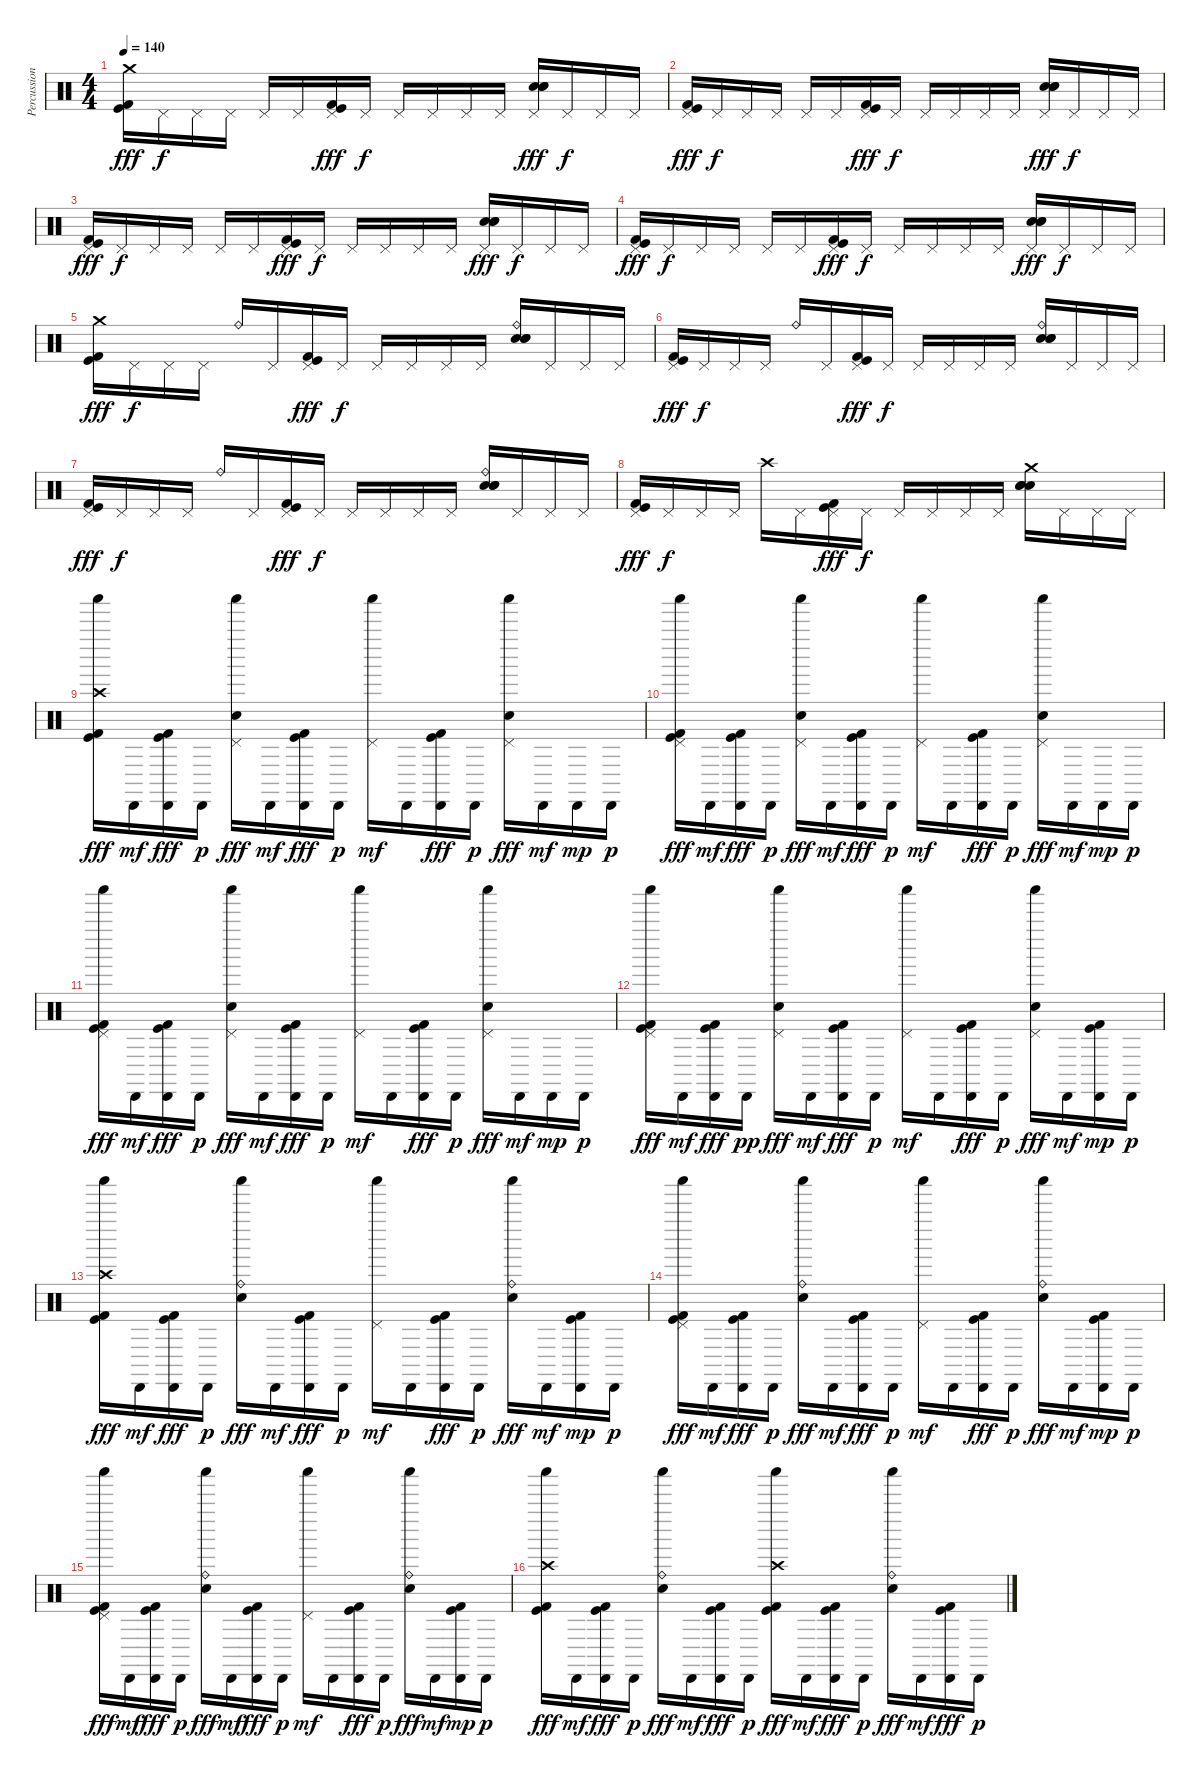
\track ("Percussion" "Percussion") {instrument percussion}
\staff {score}
\articulation defaults
\ts (4 4)
\tempo 140
\clef neutral
\ks c
("Crash medium (hit)" "Kick (hit)" "Kick (hit) 2").16{dy fff} "Pedal Hi-Hat (hit)".16{dy f} "Pedal Hi-Hat (hit)".16 "Pedal Hi-Hat (hit)".16 "Pedal Hi-Hat (hit)".16 "Pedal Hi-Hat (hit)".16 ("Pedal Hi-Hat (hit)" "Kick (hit)" "Kick (hit) 2").16{dy fff} "Pedal Hi-Hat (hit)".16{dy f} "Pedal Hi-Hat (hit)".16 "Pedal Hi-Hat (hit)".16 "Pedal Hi-Hat (hit)".16 "Pedal Hi-Hat (hit)".16 ("Pedal Hi-Hat (hit)" "Electric Snare (hit)" "Electric Snare (hit)" "Electric Snare (hit)").16{bu 60 dy fff} "Pedal Hi-Hat (hit)".16{dy f} "Pedal Hi-Hat (hit)".16 "Pedal Hi-Hat (hit)".16 |
("Pedal Hi-Hat (hit)" "Kick (hit)" "Kick (hit) 2").16{dy fff} "Pedal Hi-Hat (hit)".16{dy f} "Pedal Hi-Hat (hit)".16 "Pedal Hi-Hat (hit)".16 "Pedal Hi-Hat (hit)".16 "Pedal Hi-Hat (hit)".16 ("Pedal Hi-Hat (hit)" "Kick (hit)" "Kick (hit) 2").16{dy fff} "Pedal Hi-Hat (hit)".16{dy f} "Pedal Hi-Hat (hit)".16 "Pedal Hi-Hat (hit)".16 "Pedal Hi-Hat (hit)".16 "Pedal Hi-Hat (hit)".16 ("Pedal Hi-Hat (hit)" "Electric Snare (hit)" "Electric Snare (hit)" "Electric Snare (hit)").16{bu 60 dy fff} "Pedal Hi-Hat (hit)".16{dy f} "Pedal Hi-Hat (hit)".16 "Pedal Hi-Hat (hit)".16 |
("Pedal Hi-Hat (hit)" "Kick (hit)" "Kick (hit) 2").16{dy fff} "Pedal Hi-Hat (hit)".16{dy f} "Pedal Hi-Hat (hit)".16 "Pedal Hi-Hat (hit)".16 "Pedal Hi-Hat (hit)".16 "Pedal Hi-Hat (hit)".16 ("Pedal Hi-Hat (hit)" "Kick (hit)" "Kick (hit) 2").16{dy fff} "Pedal Hi-Hat (hit)".16{dy f} "Pedal Hi-Hat (hit)".16 "Pedal Hi-Hat (hit)".16 "Pedal Hi-Hat (hit)".16 "Pedal Hi-Hat (hit)".16 ("Pedal Hi-Hat (hit)" "Electric Snare (hit)" "Electric Snare (hit)" "Electric Snare (hit)").16{bu 60 dy fff} "Pedal Hi-Hat (hit)".16{dy f} "Pedal Hi-Hat (hit)".16 "Pedal Hi-Hat (hit)".16 |
("Pedal Hi-Hat (hit)" "Kick (hit)" "Kick (hit) 2").16{dy fff} "Pedal Hi-Hat (hit)".16{dy f} "Pedal Hi-Hat (hit)".16 "Pedal Hi-Hat (hit)".16 "Pedal Hi-Hat (hit)".16 "Pedal Hi-Hat (hit)".16 ("Pedal Hi-Hat (hit)" "Kick (hit)" "Kick (hit) 2").16{dy fff} "Pedal Hi-Hat (hit)".16{dy f} "Pedal Hi-Hat (hit)".16 "Pedal Hi-Hat (hit)".16 "Pedal Hi-Hat (hit)".16 "Pedal Hi-Hat (hit)".16 ("Pedal Hi-Hat (hit)" "Electric Snare (hit)" "Electric Snare (hit)" "Electric Snare (hit)").16{bu 60 dy fff} "Pedal Hi-Hat (hit)".16{dy f} "Pedal Hi-Hat (hit)".16 "Pedal Hi-Hat (hit)".16 |
("Crash medium (hit)" "Kick (hit)" "Kick (hit) 2").16{dy fff} "Pedal Hi-Hat (hit)".16{dy f} "Pedal Hi-Hat (hit)".16 "Pedal Hi-Hat (hit)".16 "Ride (bell)".16 "Pedal Hi-Hat (hit)".16 ("Pedal Hi-Hat (hit)" "Kick (hit)" "Kick (hit) 2").16{dy fff} "Pedal Hi-Hat (hit)".16{dy f} "Pedal Hi-Hat (hit)".16 "Pedal Hi-Hat (hit)".16 "Pedal Hi-Hat (hit)".16 "Pedal Hi-Hat (hit)".16 ("Ride (bell)" "Electric Snare (hit)" "Electric Snare (hit)" "Electric Snare (hit)").16{bu 60} "Pedal Hi-Hat (hit)".16 "Pedal Hi-Hat (hit)".16 "Pedal Hi-Hat (hit)".16 |
("Pedal Hi-Hat (hit)" "Kick (hit)" "Kick (hit) 2").16{dy fff} "Pedal Hi-Hat (hit)".16{dy f} "Pedal Hi-Hat (hit)".16 "Pedal Hi-Hat (hit)".16 "Ride (bell)".16 "Pedal Hi-Hat (hit)".16 ("Pedal Hi-Hat (hit)" "Kick (hit)" "Kick (hit) 2").16{dy fff} "Pedal Hi-Hat (hit)".16{dy f} "Pedal Hi-Hat (hit)".16 "Pedal Hi-Hat (hit)".16 "Pedal Hi-Hat (hit)".16 "Pedal Hi-Hat (hit)".16 ("Ride (bell)" "Electric Snare (hit)" "Electric Snare (hit)" "Electric Snare (hit)").16{bu 60} "Pedal Hi-Hat (hit)".16 "Pedal Hi-Hat (hit)".16 "Pedal Hi-Hat (hit)".16 |
("Pedal Hi-Hat (hit)" "Kick (hit)" "Kick (hit) 2").16{dy fff} "Pedal Hi-Hat (hit)".16{dy f} "Pedal Hi-Hat (hit)".16 "Pedal Hi-Hat (hit)".16 "Ride (bell)".16 "Pedal Hi-Hat (hit)".16 ("Pedal Hi-Hat (hit)" "Kick (hit)" "Kick (hit) 2").16{dy fff} "Pedal Hi-Hat (hit)".16{dy f} "Pedal Hi-Hat (hit)".16 "Pedal Hi-Hat (hit)".16 "Pedal Hi-Hat (hit)".16 "Pedal Hi-Hat (hit)".16 ("Ride (bell)" "Electric Snare (hit)" "Electric Snare (hit)" "Electric Snare (hit)").16{bu 60} "Pedal Hi-Hat (hit)".16 "Pedal Hi-Hat (hit)".16 "Pedal Hi-Hat (hit)".16 |
("Pedal Hi-Hat (hit)" "Kick (hit)" "Kick (hit) 2").16{dy fff} "Pedal Hi-Hat (hit)".16{dy f} "Pedal Hi-Hat (hit)".16 "Pedal Hi-Hat (hit)".16 "Crash high (hit)".16 "Pedal Hi-Hat (hit)".16 ("Pedal Hi-Hat (hit)" "Kick (hit)" "Kick (hit) 2").16{dy fff} "Pedal Hi-Hat (hit)".16{dy f} "Pedal Hi-Hat (hit)".16 "Pedal Hi-Hat (hit)".16 "Pedal Hi-Hat (hit)".16 "Pedal Hi-Hat (hit)".16 ("Crash medium (hit)" "Electric Snare (hit)" "Electric Snare (hit)" "Electric Snare (hit)").16{bu 60} "Pedal Hi-Hat (hit)".16 "Pedal Hi-Hat (hit)".16 "Pedal Hi-Hat (hit)".16 |
("Crash high (hit)" "Shaker (hit)" "Kick (hit)" "Kick (hit) 2").16{dy fff} "Cabasa (hit)".16{dy mf} ("Cabasa (hit)" "Kick (hit)" "Kick (hit) 2").16{dy fff} "Cabasa (hit)".16{dy p} ("Pedal Hi-Hat (hit)" "Shaker (hit)" "Electric Snare (hit)").16{dy fff} "Cabasa (hit)".16{dy mf} ("Cabasa (hit)" "Kick (hit)" "Kick (hit) 2").16{dy fff} "Cabasa (hit)".16{dy p} ("Pedal Hi-Hat (hit)" "Shaker (hit)").16{dy mf} "Cabasa (hit)".16 ("Cabasa (hit)" "Kick (hit)" "Kick (hit) 2").16{dy fff} "Cabasa (hit)".16{dy p} ("Pedal Hi-Hat (hit)" "Shaker (hit)" "Electric Snare (hit)").16{dy fff} "Cabasa (hit)".16{dy mf} "Cabasa (hit)".16{dy mp} "Cabasa (hit)".16{dy p} |
("Pedal Hi-Hat (hit)" "Shaker (hit)" "Kick (hit)" "Kick (hit) 2").16{dy fff} "Cabasa (hit)".16{dy mf} ("Cabasa (hit)" "Kick (hit)" "Kick (hit) 2").16{dy fff} "Cabasa (hit)".16{dy p} ("Pedal Hi-Hat (hit)" "Shaker (hit)" "Electric Snare (hit)").16{dy fff} "Cabasa (hit)".16{dy mf} ("Cabasa (hit)" "Kick (hit)" "Kick (hit) 2").16{dy fff} "Cabasa (hit)".16{dy p} ("Pedal Hi-Hat (hit)" "Shaker (hit)").16{dy mf} "Cabasa (hit)".16 ("Cabasa (hit)" "Kick (hit)" "Kick (hit) 2").16{dy fff} "Cabasa (hit)".16{dy p} ("Pedal Hi-Hat (hit)" "Shaker (hit)" "Electric Snare (hit)").16{dy fff} "Cabasa (hit)".16{dy mf} "Cabasa (hit)".16{dy mp} "Cabasa (hit)".16{dy p} |
("Pedal Hi-Hat (hit)" "Shaker (hit)" "Kick (hit)" "Kick (hit) 2").16{dy fff} "Cabasa (hit)".16{dy mf} ("Cabasa (hit)" "Kick (hit)" "Kick (hit) 2").16{dy fff} "Cabasa (hit)".16{dy p} ("Pedal Hi-Hat (hit)" "Shaker (hit)" "Electric Snare (hit)").16{dy fff} "Cabasa (hit)".16{dy mf} ("Cabasa (hit)" "Kick (hit)" "Kick (hit) 2").16{dy fff} "Cabasa (hit)".16{dy p} ("Pedal Hi-Hat (hit)" "Shaker (hit)").16{dy mf} "Cabasa (hit)".16 ("Cabasa (hit)" "Kick (hit)" "Kick (hit) 2").16{dy fff} "Cabasa (hit)".16{dy p} ("Pedal Hi-Hat (hit)" "Shaker (hit)" "Electric Snare (hit)").16{dy fff} "Cabasa (hit)".16{dy mf} "Cabasa (hit)".16{dy mp} "Cabasa (hit)".16{dy p} |
("Pedal Hi-Hat (hit)" "Shaker (hit)" "Kick (hit)" "Kick (hit) 2").16{dy fff} "Cabasa (hit)".16{dy mf} ("Cabasa (hit)" "Kick (hit)" "Kick (hit) 2").16{dy fff} "Cabasa (hit)".16{dy pp} ("Pedal Hi-Hat (hit)" "Shaker (hit)" "Electric Snare (hit)").16{dy fff} "Cabasa (hit)".16{dy mf} ("Cabasa (hit)" "Kick (hit)" "Kick (hit) 2").16{dy fff} "Cabasa (hit)".16{dy p} ("Pedal Hi-Hat (hit)" "Shaker (hit)").16{dy mf} "Cabasa (hit)".16 ("Cabasa (hit)" "Kick (hit)" "Kick (hit) 2").16{dy fff} "Cabasa (hit)".16{dy p} ("Pedal Hi-Hat (hit)" "Shaker (hit)" "Electric Snare (hit)").16{dy fff} "Cabasa (hit)".16{dy mf} ("Cabasa (hit)" "Kick (hit)" "Kick (hit) 2").16{dy mp} "Cabasa (hit)".16{dy p} |
("Crash high (hit)" "Shaker (hit)" "Kick (hit)" "Kick (hit) 2").16{dy fff} "Cabasa (hit)".16{dy mf} ("Cabasa (hit)" "Kick (hit)" "Kick (hit) 2").16{dy fff} "Cabasa (hit)".16{dy p} ("Ride (bell)" "Shaker (hit)" "Electric Snare (hit)").16{dy fff} "Cabasa (hit)".16{dy mf} ("Cabasa (hit)" "Kick (hit)" "Kick (hit) 2").16{dy fff} "Cabasa (hit)".16{dy p} ("Pedal Hi-Hat (hit)" "Shaker (hit)").16{dy mf} "Cabasa (hit)".16 ("Cabasa (hit)" "Kick (hit)" "Kick (hit) 2").16{dy fff} "Cabasa (hit)".16{dy p} ("Ride (bell)" "Shaker (hit)" "Electric Snare (hit)").16{dy fff} "Cabasa (hit)".16{dy mf} ("Cabasa (hit)" "Kick (hit)" "Kick (hit) 2").16{dy mp} "Cabasa (hit)".16{dy p} |
("Pedal Hi-Hat (hit)" "Shaker (hit)" "Kick (hit)" "Kick (hit) 2").16{dy fff} "Cabasa (hit)".16{dy mf} ("Cabasa (hit)" "Kick (hit)" "Kick (hit) 2").16{dy fff} "Cabasa (hit)".16{dy p} ("Ride (bell)" "Shaker (hit)" "Electric Snare (hit)").16{dy fff} "Cabasa (hit)".16{dy mf} ("Cabasa (hit)" "Kick (hit)" "Kick (hit) 2").16{dy fff} "Cabasa (hit)".16{dy p} ("Pedal Hi-Hat (hit)" "Shaker (hit)").16{dy mf} "Cabasa (hit)".16 ("Cabasa (hit)" "Kick (hit)" "Kick (hit) 2").16{dy fff} "Cabasa (hit)".16{dy p} ("Ride (bell)" "Shaker (hit)" "Electric Snare (hit)").16{dy fff} "Cabasa (hit)".16{dy mf} ("Cabasa (hit)" "Kick (hit)" "Kick (hit) 2").16{dy mp} "Cabasa (hit)".16{dy p} |
("Pedal Hi-Hat (hit)" "Shaker (hit)" "Kick (hit)" "Kick (hit) 2").16{dy fff} "Cabasa (hit)".16{dy mf} ("Cabasa (hit)" "Kick (hit)" "Kick (hit) 2").16{dy fff} "Cabasa (hit)".16{dy p} ("Ride (bell)" "Shaker (hit)" "Electric Snare (hit)").16{dy fff} "Cabasa (hit)".16{dy mf} ("Cabasa (hit)" "Kick (hit)" "Kick (hit) 2").16{dy fff} "Cabasa (hit)".16{dy p} ("Pedal Hi-Hat (hit)" "Shaker (hit)").16{dy mf} "Cabasa (hit)".16 ("Cabasa (hit)" "Kick (hit)" "Kick (hit) 2").16{dy fff} "Cabasa (hit)".16{dy p} ("Ride (bell)" "Shaker (hit)" "Electric Snare (hit)").16{dy fff} "Cabasa (hit)".16{dy mf} ("Cabasa (hit)" "Kick (hit)" "Kick (hit) 2").16{dy mp} "Cabasa (hit)".16{dy p} |
("Crash high (hit)" "Shaker (hit)" "Kick (hit)" "Kick (hit) 2").16{dy fff} "Cabasa (hit)".16{dy mf} ("Cabasa (hit)" "Kick (hit)" "Kick (hit) 2").16{dy fff} "Cabasa (hit)".16{dy p} ("Ride (bell)" "Shaker (hit)" "Electric Snare (hit)").16{dy fff} "Cabasa (hit)".16{dy mf} ("Cabasa (hit)" "Kick (hit)" "Kick (hit) 2").16{dy fff} "Cabasa (hit)".16{dy p} ("Crash high (hit)" "Shaker (hit)" "Kick (hit)" "Kick (hit) 2").16{dy fff} "Cabasa (hit)".16{dy mf} ("Cabasa (hit)" "Kick (hit)" "Kick (hit) 2").16{dy fff} "Cabasa (hit)".16{dy p} ("Ride (bell)" "Shaker (hit)" "Electric Snare (hit)").16{dy fff} "Cabasa (hit)".16{dy mf} ("Cabasa (hit)" "Kick (hit)" "Kick (hit) 2").16{dy fff} "Cabasa (hit)".16{dy p}
